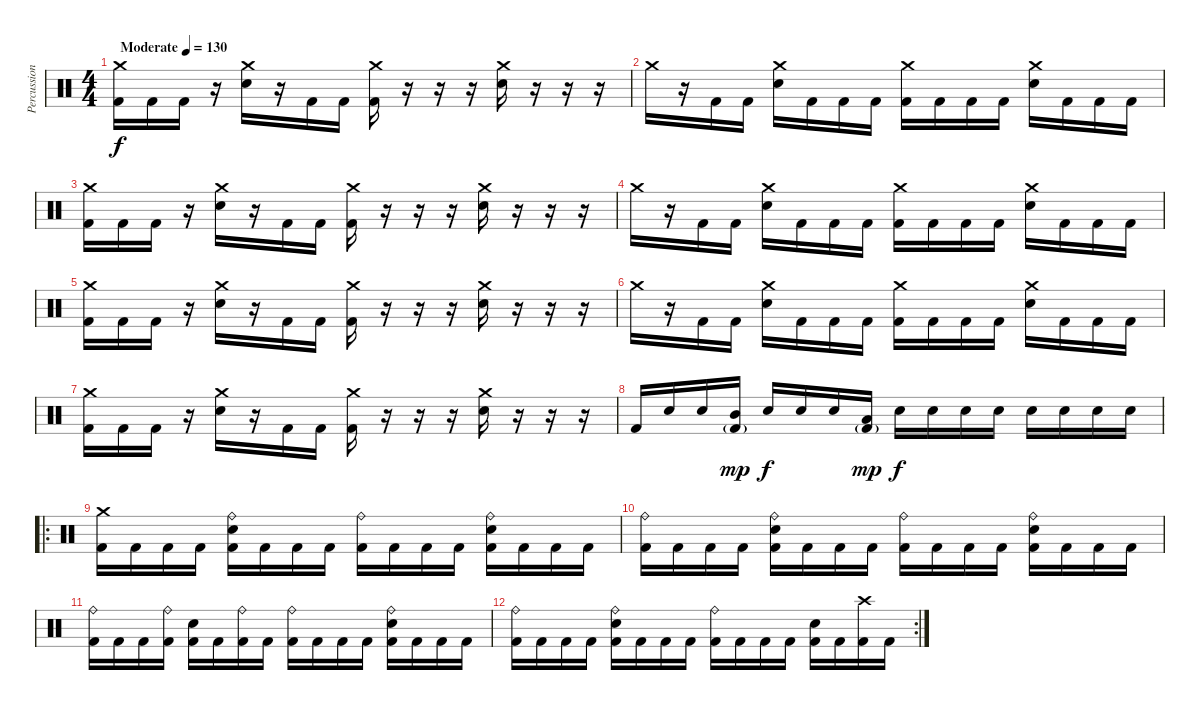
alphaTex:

\track ("Percussion" "Percussion") {instrument percussion}
\staff {score}
\articulation defaults
\ts (4 4)
\tempo (130 "Moderate")
\clef neutral
\ks c
("Crash medium (hit)" "Kick (hit) 2").16{dy f} "Kick (hit) 2".16 "Kick (hit) 2".16 r.16 ("Crash medium (hit)" "Electric Snare (hit)").16 r.16 "Kick (hit) 2".16 "Kick (hit) 2".16 ("Crash medium (hit)" "Kick (hit) 2").16 r.16 r.16 r.16 ("Crash medium (hit)" "Electric Snare (hit)").16 r.16 r.16 r.16 |
"Crash medium (hit)".16 r.16 "Kick (hit) 2".16 "Kick (hit) 2".16 ("Crash medium (hit)" "Electric Snare (hit)").16 "Kick (hit) 2".16 "Kick (hit) 2".16 "Kick (hit) 2".16 ("Crash medium (hit)" "Kick (hit) 2").16 "Kick (hit) 2".16 "Kick (hit) 2".16 "Kick (hit) 2".16 ("Crash medium (hit)" "Electric Snare (hit)").16 "Kick (hit) 2".16 "Kick (hit) 2".16 "Kick (hit) 2".16 |
("Crash medium (hit)" "Kick (hit) 2").16 "Kick (hit) 2".16 "Kick (hit) 2".16 r.16 ("Crash medium (hit)" "Electric Snare (hit)").16 r.16 "Kick (hit) 2".16 "Kick (hit) 2".16 ("Crash medium (hit)" "Kick (hit) 2").16 r.16 r.16 r.16 ("Crash medium (hit)" "Electric Snare (hit)").16 r.16 r.16 r.16 |
"Crash medium (hit)".16 r.16 "Kick (hit) 2".16 "Kick (hit) 2".16 ("Crash medium (hit)" "Electric Snare (hit)").16 "Kick (hit) 2".16 "Kick (hit) 2".16 "Kick (hit) 2".16 ("Crash medium (hit)" "Kick (hit) 2").16 "Kick (hit) 2".16 "Kick (hit) 2".16 "Kick (hit) 2".16 ("Crash medium (hit)" "Electric Snare (hit)").16 "Kick (hit) 2".16 "Kick (hit) 2".16 "Kick (hit) 2".16 |
("Crash medium (hit)" "Kick (hit) 2").16 "Kick (hit) 2".16 "Kick (hit) 2".16 r.16 ("Crash medium (hit)" "Electric Snare (hit)").16 r.16 "Kick (hit) 2".16 "Kick (hit) 2".16 ("Crash medium (hit)" "Kick (hit) 2").16 r.16 r.16 r.16 ("Crash medium (hit)" "Electric Snare (hit)").16 r.16 r.16 r.16 |
"Crash medium (hit)".16 r.16 "Kick (hit) 2".16 "Kick (hit) 2".16 ("Crash medium (hit)" "Electric Snare (hit)").16 "Kick (hit) 2".16 "Kick (hit) 2".16 "Kick (hit) 2".16 ("Crash medium (hit)" "Kick (hit) 2").16 "Kick (hit) 2".16 "Kick (hit) 2".16 "Kick (hit) 2".16 ("Crash medium (hit)" "Electric Snare (hit)").16 "Kick (hit) 2".16 "Kick (hit) 2".16 "Kick (hit) 2".16 |
("Crash medium (hit)" "Kick (hit) 2").16 "Kick (hit) 2".16 "Kick (hit) 2".16 r.16 ("Crash medium (hit)" "Electric Snare (hit)").16 r.16 "Kick (hit) 2".16 "Kick (hit) 2".16 ("Crash medium (hit)" "Kick (hit) 2").16 r.16 r.16 r.16 ("Crash medium (hit)" "Electric Snare (hit)").16 r.16 r.16 r.16 |
"Kick (hit) 2".16 "Electric Snare (hit)".16 "Electric Snare (hit)".16 ("Mid Tom (hit)" "Kick (hit) 2"{g}).16{dy mp} "Electric Snare (hit)".16{dy f} "Electric Snare (hit)".16 "Electric Snare (hit)".16 ("Low Tom (hit)" "Kick (hit) 2"{g}).16{dy mp} "Electric Snare (hit)".16{dy f} "Electric Snare (hit)".16 "Electric Snare (hit)".16 "Electric Snare (hit)".16 "Electric Snare (hit)".16 "Electric Snare (hit)".16 "Electric Snare (hit)".16 "Electric Snare (hit)".16 |
\ro
("Crash medium (hit)" "Kick (hit) 2").16 "Kick (hit) 2".16 "Kick (hit) 2".16 "Kick (hit) 2".16 ("Ride (bell)" "Electric Snare (hit)" "Kick (hit) 2").16 "Kick (hit) 2".16 "Kick (hit) 2".16 "Kick (hit) 2".16 ("Ride (bell)" "Kick (hit) 2").16 "Kick (hit) 2".16 "Kick (hit) 2".16 "Kick (hit) 2".16 ("Ride (bell)" "Electric Snare (hit)" "Kick (hit) 2").16 "Kick (hit) 2".16 "Kick (hit) 2".16 "Kick (hit) 2".16 |
("Ride (bell)" "Kick (hit) 2").16 "Kick (hit) 2".16 "Kick (hit) 2".16 "Kick (hit) 2".16 ("Ride (bell)" "Electric Snare (hit)" "Kick (hit) 2").16 "Kick (hit) 2".16 "Kick (hit) 2".16 "Kick (hit) 2".16 ("Ride (bell)" "Kick (hit) 2").16 "Kick (hit) 2".16 "Kick (hit) 2".16 "Kick (hit) 2".16 ("Ride (bell)" "Electric Snare (hit)" "Kick (hit) 2").16 "Kick (hit) 2".16 "Kick (hit) 2".16 "Kick (hit) 2".16 |
("Ride (bell)" "Kick (hit) 2").16 "Kick (hit) 2".16 "Kick (hit) 2".16 ("Ride (bell)" "Kick (hit) 2").16 ("Electric Snare (hit)" "Kick (hit) 2").16 "Kick (hit) 2".16 ("Ride (bell)" "Kick (hit) 2").16 "Kick (hit) 2".16 ("Ride (bell)" "Kick (hit) 2").16 "Kick (hit) 2".16 "Kick (hit) 2".16 "Kick (hit) 2".16 ("Ride (bell)" "Electric Snare (hit)" "Kick (hit) 2").16 "Kick (hit) 2".16 "Kick (hit) 2".16 "Kick (hit) 2".16 |
\rc 2
("Ride (bell)" "Kick (hit) 2").16 "Kick (hit) 2".16 "Kick (hit) 2".16 "Kick (hit) 2".16 ("Ride (bell)" "Electric Snare (hit)" "Kick (hit) 2").16 "Kick (hit) 2".16 "Kick (hit) 2".16 "Kick (hit) 2".16 ("Ride (bell)" "Kick (hit) 2").16 "Kick (hit) 2".16 "Kick (hit) 2".16 "Kick (hit) 2".16 ("Electric Snare (hit)" "Kick (hit) 2").16 "Kick (hit) 2".16 ("Crash high (hit)" "Kick (hit) 2").16 "Kick (hit) 2".16
